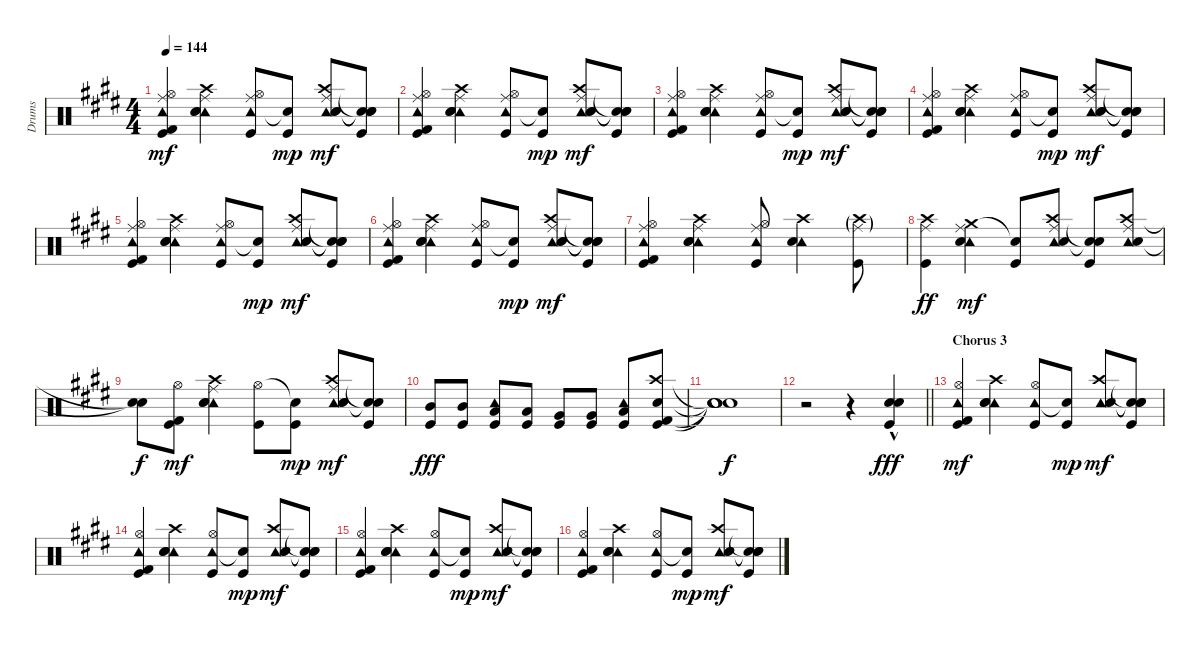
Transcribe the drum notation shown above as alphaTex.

\track ("Drums" "Drums") {instrument percussion}
\staff {score}
\articulation defaults
\ts (4 4)
\tempo 144
\clef neutral
\ks c#minor
("Tambourine (hit)" "Hi-Hat (open)" "Ride (middle)" "Kick (hit) 2" "Kick (hit)").4{dy mf} ("Crash high (hit)" "Tambourine (hit)" "Snare (hit) 2" "Electric Snare (hit)" "Ride (middle)").4 ("Tambourine (hit)" "Hi-Hat (open)" "Ride (middle)" "Kick (hit)").8 ("Snare (hit)"{t} "Kick (hit)").8{dy mp} ("Crash high (hit)" "Tambourine (hit)" "Snare (hit) 2" "Electric Snare (hit)" "Ride (middle)").8{dy mf} ("Snare (hit)"{t} "Snare (hit)"{t} "Snare (hit)"{t} "Kick (hit)").8 |
("Tambourine (hit)" "Hi-Hat (open)" "Ride (middle)" "Kick (hit) 2" "Kick (hit)").4 ("Crash high (hit)" "Tambourine (hit)" "Snare (hit) 2" "Electric Snare (hit)" "Ride (middle)").4 ("Tambourine (hit)" "Hi-Hat (open)" "Ride (middle)" "Kick (hit)").8 ("Snare (hit)"{t} "Kick (hit)").8{dy mp} ("Crash high (hit)" "Tambourine (hit)" "Snare (hit) 2" "Electric Snare (hit)" "Ride (middle)").8{dy mf} ("Snare (hit)"{t} "Snare (hit)"{t} "Snare (hit)"{t} "Kick (hit)").8 |
("Tambourine (hit)" "Hi-Hat (open)" "Ride (middle)" "Kick (hit) 2" "Kick (hit)").4 ("Crash high (hit)" "Tambourine (hit)" "Snare (hit) 2" "Electric Snare (hit)" "Ride (middle)").4 ("Tambourine (hit)" "Hi-Hat (open)" "Ride (middle)" "Kick (hit)").8 ("Snare (hit)"{t} "Kick (hit)").8{dy mp} ("Crash high (hit)" "Tambourine (hit)" "Snare (hit) 2" "Electric Snare (hit)" "Ride (middle)").8{dy mf} ("Snare (hit)"{t} "Snare (hit)"{t} "Snare (hit)"{t} "Kick (hit)").8 |
("Tambourine (hit)" "Hi-Hat (open)" "Ride (middle)" "Kick (hit) 2" "Kick (hit)").4 ("Crash high (hit)" "Tambourine (hit)" "Snare (hit) 2" "Electric Snare (hit)" "Ride (middle)").4 ("Tambourine (hit)" "Hi-Hat (open)" "Ride (middle)" "Kick (hit)").8 ("Snare (hit)"{t} "Kick (hit)").8{dy mp} ("Crash high (hit)" "Tambourine (hit)" "Snare (hit) 2" "Electric Snare (hit)" "Ride (middle)").8{dy mf} ("Snare (hit)"{t} "Snare (hit)"{t} "Snare (hit)"{t} "Kick (hit)").8 |
("Tambourine (hit)" "Hi-Hat (open)" "Ride (middle)" "Kick (hit) 2" "Kick (hit)").4 ("Crash high (hit)" "Tambourine (hit)" "Snare (hit) 2" "Electric Snare (hit)" "Ride (middle)").4 ("Tambourine (hit)" "Hi-Hat (open)" "Ride (middle)" "Kick (hit)").8 ("Snare (hit)"{t} "Kick (hit)").8{dy mp} ("Crash high (hit)" "Tambourine (hit)" "Snare (hit) 2" "Electric Snare (hit)" "Ride (middle)").8{dy mf} ("Snare (hit)"{t} "Snare (hit)"{t} "Snare (hit)"{t} "Kick (hit)").8 |
("Tambourine (hit)" "Hi-Hat (open)" "Ride (middle)" "Kick (hit) 2" "Kick (hit)").4 ("Crash high (hit)" "Tambourine (hit)" "Snare (hit) 2" "Electric Snare (hit)" "Ride (middle)").4 ("Tambourine (hit)" "Hi-Hat (open)" "Ride (middle)" "Kick (hit)").8 ("Snare (hit)"{t} "Kick (hit)").8{dy mp} ("Crash high (hit)" "Tambourine (hit)" "Snare (hit) 2" "Electric Snare (hit)" "Ride (middle)").8{dy mf} ("Snare (hit)"{t} "Snare (hit)"{t} "Snare (hit)"{t} "Kick (hit)").8 |
("Tambourine (hit)" "Hi-Hat (open)" "Ride (middle)" "Kick (hit) 2" "Kick (hit)").4 ("Crash high (hit)" "Tambourine (hit)" "Snare (hit) 2" "Electric Snare (hit)" "Ride (middle)").4 ("Tambourine (hit)" "Hi-Hat (open)" "Ride (middle)" "Kick (hit)").8 ("Crash high (hit)" "Tambourine (hit)" "Snare (hit) 2").4 ("Crash high (hit)"{g} "Ride (middle)"{g} "Kick (hit)").8 |
\ks e
("Crash high (hit)" "Ride (middle)" "Kick (hit)").4{dy ff} ("Crash medium (hit)" "Tambourine (hit)" "Snare (hit) 2" "Ride (middle)").4{dy mf} ("Snare (hit)"{t} "Kick (hit)").8 ("Crash high (hit)" "Tambourine (hit)" "Snare (hit) 2" "Ride (middle)").8 ("Snare (hit)"{t} "Snare (hit)"{t} "Kick (hit)").8 ("Crash high (hit)" "Tambourine (hit)" "Snare (hit) 2" "Ride (middle)").8 |
\ks c#minor
("Snare (hit)"{t} "Snare (hit)"{t}).8{dy f} ("Hi-Hat (open)" "Kick (hit) 2" "Kick (hit)").8{dy mf} ("Crash high (hit)" "Tambourine (hit)" "Snare (hit) 2" "Electric Snare (hit)" "Ride (middle)").4 ("Hi-Hat (open)" "Kick (hit)").8 ("Snare (hit)"{t} "Kick (hit)").8{dy mp} ("Crash high (hit)" "Tambourine (hit)" "Snare (hit) 2" "Electric Snare (hit)" "Ride (middle)").8{dy mf} ("Snare (hit)"{t} "Snare (hit)"{t} "Kick (hit)").8 |
("Mid Tom (hit)" "Kick (hit)").8{dy fff} ("Mid Tom (hit)" "Kick (hit)").8 ("Tambourine (hit)" "Low Tom (hit)" "Kick (hit)").8 ("Low Tom (hit)" "Kick (hit)").8 ("Very Low Tom (hit)" "Kick (hit)").8 ("Very Low Tom (hit)" "Kick (hit)").8 ("Tambourine (hit)" "Low Floor Tom (hit)" "Kick (hit)").8 ("Crash high (hit)" "Snare (hit) 2" "Kick (hit) 2" "Kick (hit)").8 |
("Snare (hit)"{t} "Snare (hit)"{t} "Snare (hit)"{t} "Snare (hit)"{t}).1{dy f} |
\barLineRight lightlight
r.2 r.4 ("Snare (hit) 2"{hac} "Electric Snare (hit)"{hac} "Kick (hit)"{hac}).4{dy fff} |
\section ("" "Chorus 3")
("Tambourine (hit)" "Hi-Hat (open)" "Kick (hit) 2" "Kick (hit)").4{dy mf} ("Crash high (hit)" "Tambourine (hit)" "Snare (hit) 2" "Electric Snare (hit)").4 ("Tambourine (hit)" "Hi-Hat (open)" "Kick (hit)").8 ("Snare (hit)"{t} "Kick (hit)").8{dy mp} ("Crash high (hit)" "Tambourine (hit)" "Snare (hit) 2" "Electric Snare (hit)").8{dy mf} ("Snare (hit)"{t} "Snare (hit)"{t} "Snare (hit)"{t} "Kick (hit)").8 |
\ks e
("Tambourine (hit)" "Hi-Hat (open)" "Kick (hit) 2" "Kick (hit)").4 ("Crash high (hit)" "Tambourine (hit)" "Snare (hit) 2" "Electric Snare (hit)").4 ("Tambourine (hit)" "Hi-Hat (open)" "Kick (hit)").8 ("Snare (hit)"{t} "Kick (hit)").8{dy mp} ("Crash high (hit)" "Tambourine (hit)" "Snare (hit) 2" "Electric Snare (hit)").8{dy mf} ("Snare (hit)"{t} "Snare (hit)"{t} "Snare (hit)"{t} "Kick (hit)").8 |
\ks c#minor
("Tambourine (hit)" "Hi-Hat (open)" "Kick (hit) 2" "Kick (hit)").4 ("Crash high (hit)" "Tambourine (hit)" "Snare (hit) 2" "Electric Snare (hit)").4 ("Tambourine (hit)" "Hi-Hat (open)" "Kick (hit)").8 ("Snare (hit)"{t} "Kick (hit)").8{dy mp} ("Crash high (hit)" "Tambourine (hit)" "Snare (hit) 2" "Electric Snare (hit)").8{dy mf} ("Snare (hit)"{t} "Snare (hit)"{t} "Snare (hit)"{t} "Kick (hit)").8 |
\ks e
("Tambourine (hit)" "Hi-Hat (open)" "Kick (hit) 2" "Kick (hit)").4 ("Crash high (hit)" "Tambourine (hit)" "Snare (hit) 2" "Electric Snare (hit)").4 ("Tambourine (hit)" "Hi-Hat (open)" "Kick (hit)").8 ("Snare (hit)"{t} "Kick (hit)").8{dy mp} ("Crash high (hit)" "Tambourine (hit)" "Snare (hit) 2" "Electric Snare (hit)").8{dy mf} ("Snare (hit)"{t} "Snare (hit)"{t} "Snare (hit)"{t} "Kick (hit)").8
